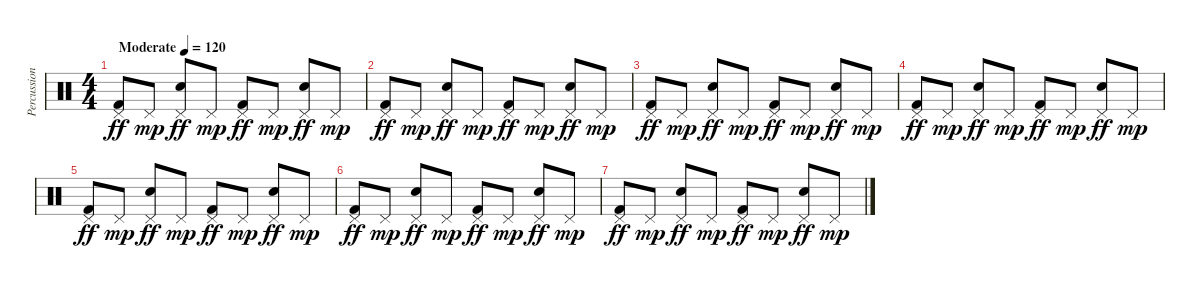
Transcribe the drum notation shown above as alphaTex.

\track ("Percussion" "Percussion") {instrument percussion}
\staff {score}
\articulation defaults
\ts (4 4)
\tempo (120 "Moderate")
\clef neutral
\ks c
("Kick (hit) 2" "Pedal Hi-Hat (hit)").8{dy ff} "Pedal Hi-Hat (hit)".8{dy mp} ("Snare (hit) 2" "Pedal Hi-Hat (hit)").8{dy ff} "Pedal Hi-Hat (hit)".8{dy mp} ("Kick (hit) 2" "Pedal Hi-Hat (hit)").8{dy ff} "Pedal Hi-Hat (hit)".8{dy mp} ("Snare (hit) 2" "Pedal Hi-Hat (hit)").8{dy ff} "Pedal Hi-Hat (hit)".8{dy mp} |
("Kick (hit) 2" "Pedal Hi-Hat (hit)").8{dy ff} "Pedal Hi-Hat (hit)".8{dy mp} ("Snare (hit) 2" "Pedal Hi-Hat (hit)").8{dy ff} "Pedal Hi-Hat (hit)".8{dy mp} ("Kick (hit) 2" "Pedal Hi-Hat (hit)").8{dy ff} "Pedal Hi-Hat (hit)".8{dy mp} ("Snare (hit) 2" "Pedal Hi-Hat (hit)").8{dy ff} "Pedal Hi-Hat (hit)".8{dy mp} |
("Kick (hit) 2" "Pedal Hi-Hat (hit)").8{dy ff} "Pedal Hi-Hat (hit)".8{dy mp} ("Snare (hit) 2" "Pedal Hi-Hat (hit)").8{dy ff} "Pedal Hi-Hat (hit)".8{dy mp} ("Kick (hit) 2" "Pedal Hi-Hat (hit)").8{dy ff} "Pedal Hi-Hat (hit)".8{dy mp} ("Snare (hit) 2" "Pedal Hi-Hat (hit)").8{dy ff} "Pedal Hi-Hat (hit)".8{dy mp} |
("Kick (hit) 2" "Pedal Hi-Hat (hit)").8{dy ff} "Pedal Hi-Hat (hit)".8{dy mp} ("Snare (hit) 2" "Pedal Hi-Hat (hit)").8{dy ff} "Pedal Hi-Hat (hit)".8{dy mp} ("Kick (hit) 2" "Pedal Hi-Hat (hit)").8{dy ff} "Pedal Hi-Hat (hit)".8{dy mp} ("Snare (hit) 2" "Pedal Hi-Hat (hit)").8{dy ff} "Pedal Hi-Hat (hit)".8{dy mp} |
("Kick (hit) 2" "Pedal Hi-Hat (hit)").8{dy ff} "Pedal Hi-Hat (hit)".8{dy mp} ("Snare (hit) 2" "Pedal Hi-Hat (hit)").8{dy ff} "Pedal Hi-Hat (hit)".8{dy mp} ("Kick (hit) 2" "Pedal Hi-Hat (hit)").8{dy ff} "Pedal Hi-Hat (hit)".8{dy mp} ("Snare (hit) 2" "Pedal Hi-Hat (hit)").8{dy ff} "Pedal Hi-Hat (hit)".8{dy mp} |
("Kick (hit) 2" "Pedal Hi-Hat (hit)").8{dy ff} "Pedal Hi-Hat (hit)".8{dy mp} ("Snare (hit) 2" "Pedal Hi-Hat (hit)").8{dy ff} "Pedal Hi-Hat (hit)".8{dy mp} ("Kick (hit) 2" "Pedal Hi-Hat (hit)").8{dy ff} "Pedal Hi-Hat (hit)".8{dy mp} ("Snare (hit) 2" "Pedal Hi-Hat (hit)").8{dy ff} "Pedal Hi-Hat (hit)".8{dy mp} |
("Kick (hit) 2" "Pedal Hi-Hat (hit)").8{dy ff} "Pedal Hi-Hat (hit)".8{dy mp} ("Snare (hit) 2" "Pedal Hi-Hat (hit)").8{dy ff} "Pedal Hi-Hat (hit)".8{dy mp} ("Kick (hit) 2" "Pedal Hi-Hat (hit)").8{dy ff} "Pedal Hi-Hat (hit)".8{dy mp} ("Snare (hit) 2" "Pedal Hi-Hat (hit)").8{dy ff} "Pedal Hi-Hat (hit)".8{dy mp}
